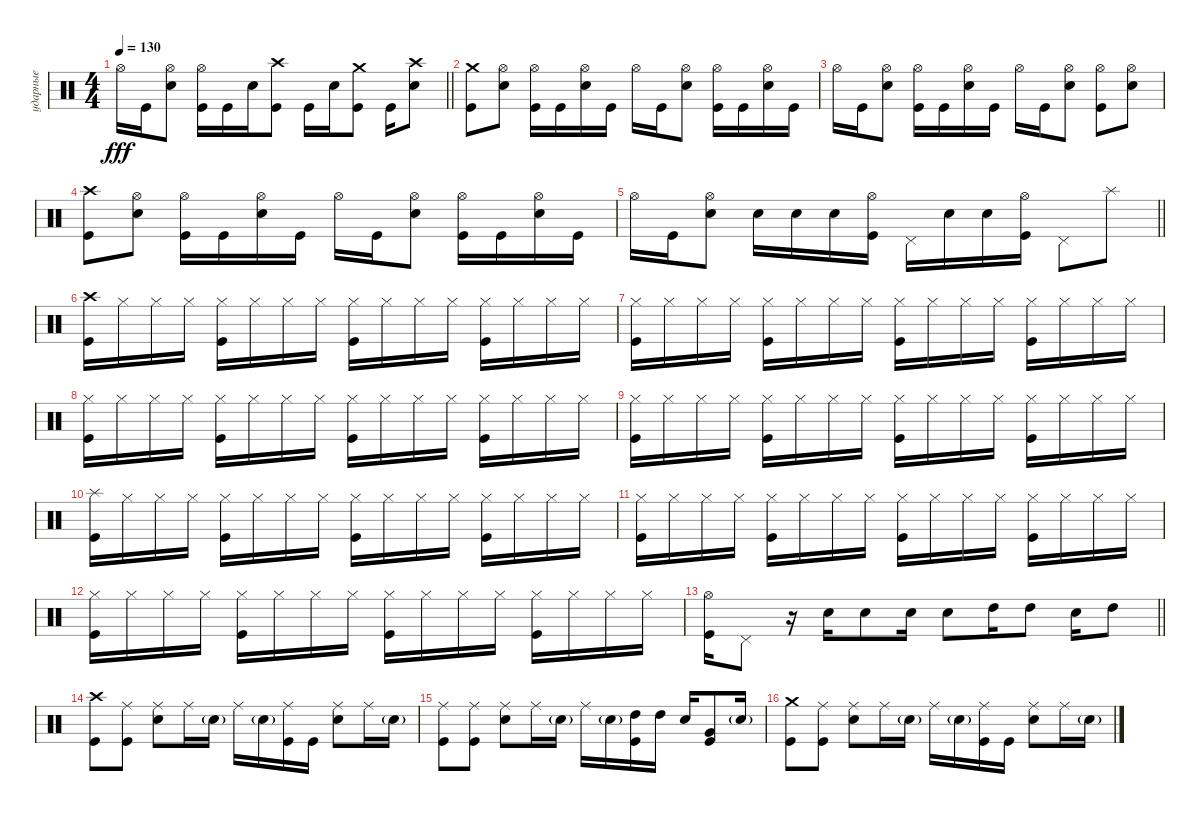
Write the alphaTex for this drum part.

\track ("ударные" "ударные") {instrument percussion}
\staff {score}
\articulation defaults
\ts (4 4)
\tempo 130
\clef neutral
\barLineRight lightlight
\ks c "Hi-Hat (open)".16{dy fff} "Kick (hit)".16
("Hi-Hat (open)" "Snare (hit) 2").8 ("Hi-Hat (open)" "Kick (hit)").16 "Kick (hit)".16 "Snare (hit) 2".16 ("Crash high (hit)" "Kick (hit)").8 "Kick (hit)".16 "Snare (hit) 2".16 ("Crash medium (hit)" "Kick (hit)").8 "Kick (hit)".16 ("Crash high (hit)" "Snare (hit) 2").8 |
("Crash medium (hit)" "Kick (hit)").8 ("Hi-Hat (open)" "Snare (hit) 2").8 ("Hi-Hat (open)" "Kick (hit)").16 "Kick (hit)".16 ("Hi-Hat (open)" "Snare (hit) 2").16 "Kick (hit)".16 "Hi-Hat (open)".16 "Kick (hit)".16 ("Hi-Hat (open)" "Snare (hit) 2").8 ("Hi-Hat (open)" "Kick (hit)").16 "Kick (hit)".16 ("Hi-Hat (open)" "Snare (hit) 2").16 "Kick (hit)".16 |
"Hi-Hat (open)".16 "Kick (hit)".16 ("Hi-Hat (open)" "Snare (hit) 2").8 ("Hi-Hat (open)" "Kick (hit)").16 "Kick (hit)".16 ("Hi-Hat (open)" "Snare (hit) 2").16 "Kick (hit)".16 "Hi-Hat (open)".16 "Kick (hit)".16 ("Hi-Hat (open)" "Snare (hit) 2").8 ("Hi-Hat (open)" "Kick (hit)").8 ("Hi-Hat (open)" "Snare (hit) 2").8 |
("Crash high (hit)" "Kick (hit)").8 ("Hi-Hat (open)" "Snare (hit) 2").8 ("Hi-Hat (open)" "Kick (hit)").16 "Kick (hit)".16 ("Hi-Hat (open)" "Snare (hit) 2").16 "Kick (hit)".16 "Hi-Hat (open)".16 "Kick (hit)".16 ("Hi-Hat (open)" "Snare (hit) 2").8 ("Hi-Hat (open)" "Kick (hit)").16 "Kick (hit)".16 ("Hi-Hat (open)" "Snare (hit) 2").16 "Kick (hit)".16 |
\barLineRight lightlight "Hi-Hat (open)".16 "Kick (hit)".16
("Hi-Hat (open)" "Snare (hit) 2").8 "Snare (hit) 2".16 "Snare (hit) 2".16 "Snare (hit) 2".16 ("Hi-Hat (open)" "Kick (hit)").16 "Pedal Hi-Hat (hit)".16 "Snare (hit) 2".16 "Snare (hit) 2".16 ("Hi-Hat (open)" "Kick (hit)").16 "Pedal Hi-Hat (hit)".8 "Splash (hit)".8 |
("Crash high (hit)" "Kick (hit)").16 "Hi-Hat (closed)".16 "Hi-Hat (closed)".16 "Hi-Hat (closed)".16 ("Hi-Hat (closed)" "Kick (hit)").16 "Hi-Hat (closed)".16 "Hi-Hat (closed)".16 "Hi-Hat (closed)".16 ("Hi-Hat (closed)" "Kick (hit)").16 "Hi-Hat (closed)".16 "Hi-Hat (closed)".16 "Hi-Hat (closed)".16 ("Hi-Hat (closed)" "Kick (hit)").16 "Hi-Hat (closed)".16 "Hi-Hat (closed)".16 "Hi-Hat (closed)".16 |
("Hi-Hat (closed)" "Kick (hit)").16 "Hi-Hat (closed)".16 "Hi-Hat (closed)".16 "Hi-Hat (closed)".16 ("Hi-Hat (closed)" "Kick (hit)").16 "Hi-Hat (closed)".16 "Hi-Hat (closed)".16 "Hi-Hat (closed)".16 ("Hi-Hat (closed)" "Kick (hit)").16 "Hi-Hat (closed)".16 "Hi-Hat (closed)".16 "Hi-Hat (closed)".16 ("Hi-Hat (closed)" "Kick (hit)").16 "Hi-Hat (closed)".16 "Hi-Hat (closed)".16 "Hi-Hat (closed)".16 |
("Hi-Hat (closed)" "Kick (hit)").16 "Hi-Hat (closed)".16 "Hi-Hat (closed)".16 "Hi-Hat (closed)".16 ("Hi-Hat (closed)" "Kick (hit)").16 "Hi-Hat (closed)".16 "Hi-Hat (closed)".16 "Hi-Hat (closed)".16 ("Hi-Hat (closed)" "Kick (hit)").16 "Hi-Hat (closed)".16 "Hi-Hat (closed)".16 "Hi-Hat (closed)".16 ("Hi-Hat (closed)" "Kick (hit)").16 "Hi-Hat (closed)".16 "Hi-Hat (closed)".16 "Hi-Hat (closed)".16 |
("Hi-Hat (closed)" "Kick (hit)").16 "Hi-Hat (closed)".16 "Hi-Hat (closed)".16 "Hi-Hat (closed)".16 ("Hi-Hat (closed)" "Kick (hit)").16 "Hi-Hat (closed)".16 "Hi-Hat (closed)".16 "Hi-Hat (closed)".16 ("Hi-Hat (closed)" "Kick (hit)").16 "Hi-Hat (closed)".16 "Hi-Hat (closed)".16 "Hi-Hat (closed)".16 ("Hi-Hat (closed)" "Kick (hit)").16 "Hi-Hat (closed)".16 "Hi-Hat (closed)".16 "Hi-Hat (closed)".16 |
("Splash (hit)" "Kick (hit)").16 "Hi-Hat (closed)".16 "Hi-Hat (closed)".16 "Hi-Hat (closed)".16 ("Hi-Hat (closed)" "Kick (hit)").16 "Hi-Hat (closed)".16 "Hi-Hat (closed)".16 "Hi-Hat (closed)".16 ("Hi-Hat (closed)" "Kick (hit)").16 "Hi-Hat (closed)".16 "Hi-Hat (closed)".16 "Hi-Hat (closed)".16 ("Hi-Hat (closed)" "Kick (hit)").16 "Hi-Hat (closed)".16 "Hi-Hat (closed)".16 "Hi-Hat (closed)".16 |
("Hi-Hat (closed)" "Kick (hit)").16 "Hi-Hat (closed)".16 "Hi-Hat (closed)".16 "Hi-Hat (closed)".16 ("Hi-Hat (closed)" "Kick (hit)").16 "Hi-Hat (closed)".16 "Hi-Hat (closed)".16 "Hi-Hat (closed)".16 ("Hi-Hat (closed)" "Kick (hit)").16 "Hi-Hat (closed)".16 "Hi-Hat (closed)".16 "Hi-Hat (closed)".16 ("Hi-Hat (closed)" "Kick (hit)").16 "Hi-Hat (closed)".16 "Hi-Hat (closed)".16 "Hi-Hat (closed)".16 |
("Hi-Hat (closed)" "Kick (hit)").16 "Hi-Hat (closed)".16 "Hi-Hat (closed)".16 "Hi-Hat (closed)".16 ("Hi-Hat (closed)" "Kick (hit)").16 "Hi-Hat (closed)".16 "Hi-Hat (closed)".16 "Hi-Hat (closed)".16 ("Hi-Hat (closed)" "Kick (hit)").16 "Hi-Hat (closed)".16 "Hi-Hat (closed)".16 "Hi-Hat (closed)".16 ("Hi-Hat (closed)" "Kick (hit)").16 "Hi-Hat (closed)".16 "Hi-Hat (closed)".16 "Hi-Hat (closed)".16 |
\barLineRight lightlight
("Hi-Hat (open)" "Kick (hit)").16 "Pedal Hi-Hat (hit)".8 r.16 "Snare (hit) 2".16 "Snare (hit) 2".8 "Snare (hit) 2".16 "Snare (hit) 2".8 "High Tom (hit)".16 "High Tom (hit)".8 "Snare (hit) 2".16 "High Tom (hit)".8 |
("Crash high (hit)" "Kick (hit)").8 ("Ride (middle)" "Kick (hit)").8 ("Ride (middle)" "Snare (hit) 2").8 "Ride (middle)".16 "Snare (hit) 2"{g}.16 "Ride (middle)".16 "Snare (hit) 2"{g}.16 ("Ride (middle)" "Kick (hit)").16 "Kick (hit)".16 ("Ride (middle)" "Snare (hit) 2").8 "Ride (middle)".16 "Snare (hit) 2"{g}.16 |
("Ride (middle)" "Kick (hit)").8 ("Ride (middle)" "Kick (hit)").8 ("Ride (middle)" "Snare (hit) 2").8 "Ride (middle)".16 "Snare (hit) 2"{g}.16 "Ride (middle)".16 "Snare (hit) 2"{g}.16 ("High Tom (hit)" "Kick (hit)").16 "High Tom (hit)".16 "Snare (hit) 2".16 ("Very Low Tom (hit)" "Kick (hit)").8 "Snare (hit) 2"{g}.16 |
("Crash medium (hit)" "Kick (hit)").8 ("Ride (middle)" "Kick (hit)").8 ("Ride (middle)" "Snare (hit) 2").8 "Ride (middle)".16 "Snare (hit) 2"{g}.16 "Ride (middle)".16 "Snare (hit) 2"{g}.16 ("Ride (middle)" "Kick (hit)").16 "Kick (hit)".16 ("Ride (middle)" "Snare (hit) 2").8 "Ride (middle)".16 "Snare (hit) 2"{g}.16
